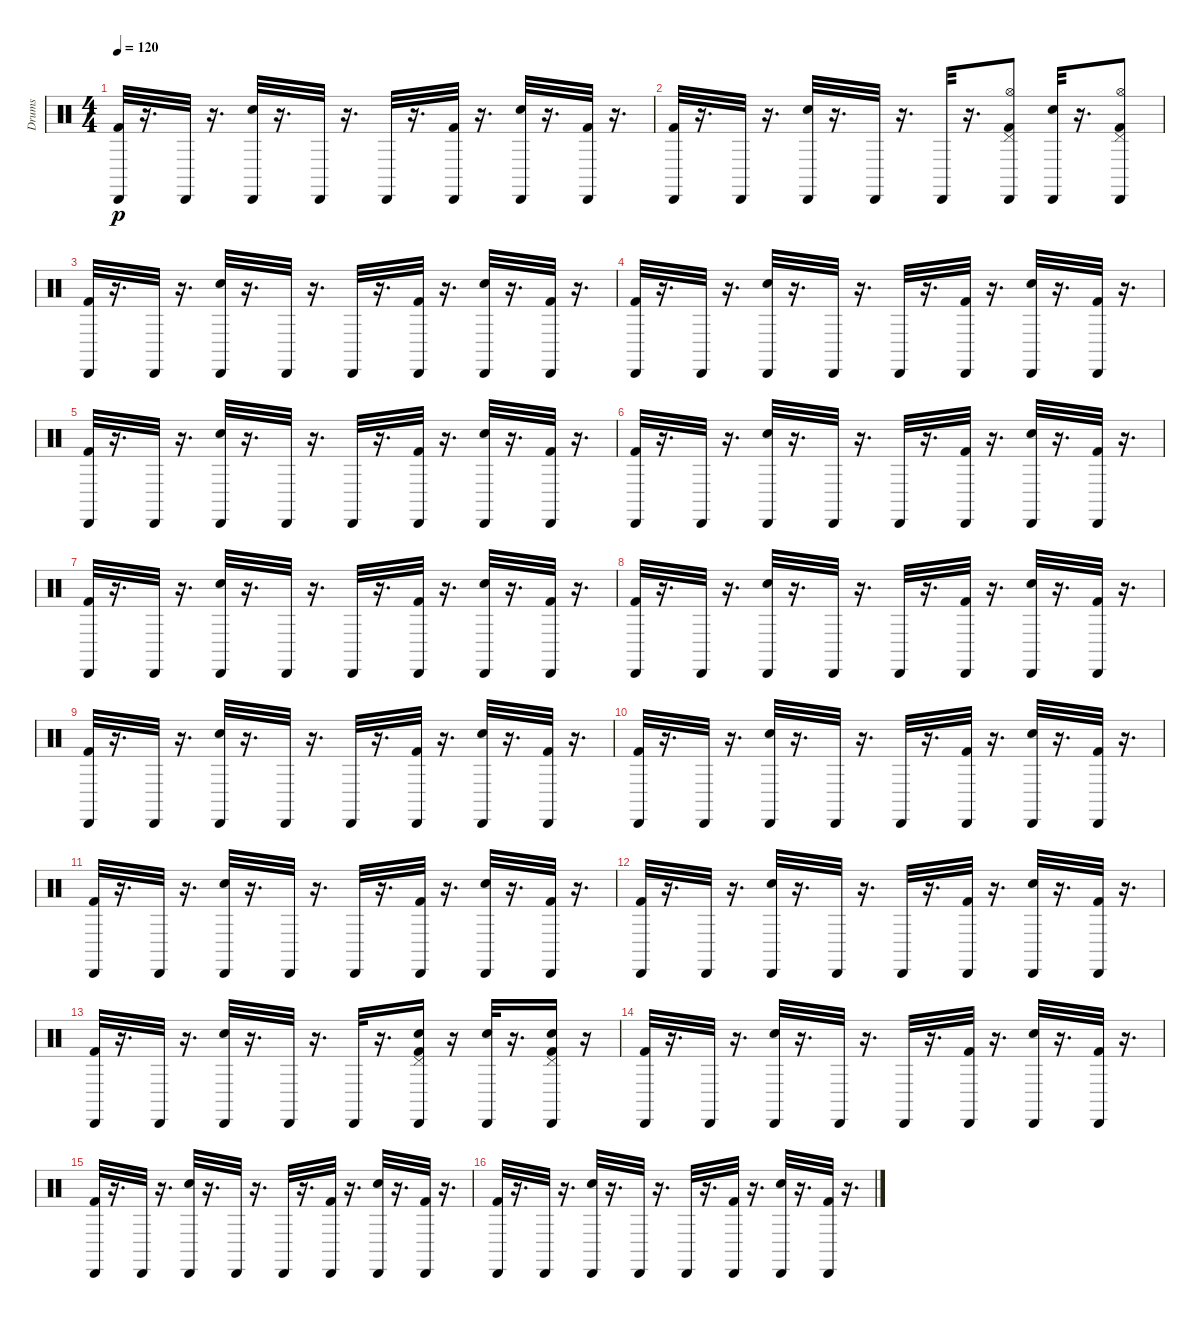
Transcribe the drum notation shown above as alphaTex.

\track ("Drums" "Drums") {instrument percussion}
\staff {score}
\articulation defaults
\ts (4 4)
\tempo 120
\clef neutral
\ks c
("Cabasa (hit)" "Kick (hit) 2").32{dy p} r.16{d} "Cabasa (hit)".32 r.16{d} ("Cabasa (hit)" "Electric Snare (hit)").32 r.16{d} "Cabasa (hit)".32 r.16{d} "Cabasa (hit)".32 r.16{d} ("Cabasa (hit)" "Kick (hit) 2").32 r.16{d} ("Cabasa (hit)" "Electric Snare (hit)").32 r.16{d} ("Cabasa (hit)" "Kick (hit) 2").32 r.16{d} |
("Cabasa (hit)" "Kick (hit) 2").32 r.16{d} "Cabasa (hit)".32 r.16{d} ("Cabasa (hit)" "Electric Snare (hit)").32 r.16{d} "Cabasa (hit)".32 r.16{d} "Cabasa (hit)".32 r.16{d} ("Pedal Hi-Hat (hit)" "Hi-Hat (open)" "Cabasa (hit)" "Kick (hit) 2").8 ("Cabasa (hit)" "Electric Snare (hit)").32 r.16{d} ("Pedal Hi-Hat (hit)" "Hi-Hat (open)" "Cabasa (hit)" "Kick (hit) 2").8 |
("Cabasa (hit)" "Kick (hit) 2").32 r.16{d} "Cabasa (hit)".32 r.16{d} ("Cabasa (hit)" "Electric Snare (hit)").32 r.16{d} "Cabasa (hit)".32 r.16{d} "Cabasa (hit)".32 r.16{d} ("Cabasa (hit)" "Kick (hit) 2").32 r.16{d} ("Cabasa (hit)" "Electric Snare (hit)").32 r.16{d} ("Cabasa (hit)" "Kick (hit) 2").32 r.16{d} |
("Cabasa (hit)" "Kick (hit) 2").32 r.16{d} "Cabasa (hit)".32 r.16{d} ("Cabasa (hit)" "Electric Snare (hit)").32 r.16{d} "Cabasa (hit)".32 r.16{d} "Cabasa (hit)".32 r.16{d} ("Cabasa (hit)" "Kick (hit) 2").32 r.16{d} ("Cabasa (hit)" "Electric Snare (hit)").32 r.16{d} ("Cabasa (hit)" "Kick (hit) 2").32 r.16{d} |
("Cabasa (hit)" "Kick (hit) 2").32 r.16{d} "Cabasa (hit)".32 r.16{d} ("Cabasa (hit)" "Electric Snare (hit)").32 r.16{d} "Cabasa (hit)".32 r.16{d} "Cabasa (hit)".32 r.16{d} ("Cabasa (hit)" "Kick (hit) 2").32 r.16{d} ("Cabasa (hit)" "Electric Snare (hit)").32 r.16{d} ("Cabasa (hit)" "Kick (hit) 2").32 r.16{d} |
("Cabasa (hit)" "Kick (hit) 2").32 r.16{d} "Cabasa (hit)".32 r.16{d} ("Cabasa (hit)" "Electric Snare (hit)").32 r.16{d} "Cabasa (hit)".32 r.16{d} "Cabasa (hit)".32 r.16{d} ("Cabasa (hit)" "Kick (hit) 2").32 r.16{d} ("Cabasa (hit)" "Electric Snare (hit)").32 r.16{d} ("Cabasa (hit)" "Kick (hit) 2").32 r.16{d} |
("Cabasa (hit)" "Kick (hit) 2").32 r.16{d} "Cabasa (hit)".32 r.16{d} ("Cabasa (hit)" "Electric Snare (hit)").32 r.16{d} "Cabasa (hit)".32 r.16{d} "Cabasa (hit)".32 r.16{d} ("Cabasa (hit)" "Kick (hit) 2").32 r.16{d} ("Cabasa (hit)" "Electric Snare (hit)").32 r.16{d} ("Cabasa (hit)" "Kick (hit) 2").32 r.16{d} |
("Cabasa (hit)" "Kick (hit) 2").32 r.16{d} "Cabasa (hit)".32 r.16{d} ("Cabasa (hit)" "Electric Snare (hit)").32 r.16{d} "Cabasa (hit)".32 r.16{d} "Cabasa (hit)".32 r.16{d} ("Cabasa (hit)" "Kick (hit) 2").32 r.16{d} ("Cabasa (hit)" "Electric Snare (hit)").32 r.16{d} ("Cabasa (hit)" "Kick (hit) 2").32 r.16{d} |
("Cabasa (hit)" "Kick (hit) 2").32 r.16{d} "Cabasa (hit)".32 r.16{d} ("Cabasa (hit)" "Electric Snare (hit)").32 r.16{d} "Cabasa (hit)".32 r.16{d} "Cabasa (hit)".32 r.16{d} ("Cabasa (hit)" "Kick (hit) 2").32 r.16{d} ("Cabasa (hit)" "Electric Snare (hit)").32 r.16{d} ("Cabasa (hit)" "Kick (hit) 2").32 r.16{d} |
("Cabasa (hit)" "Kick (hit) 2").32 r.16{d} "Cabasa (hit)".32 r.16{d} ("Cabasa (hit)" "Electric Snare (hit)").32 r.16{d} "Cabasa (hit)".32 r.16{d} "Cabasa (hit)".32 r.16{d} ("Cabasa (hit)" "Kick (hit) 2").32 r.16{d} ("Cabasa (hit)" "Electric Snare (hit)").32 r.16{d} ("Cabasa (hit)" "Kick (hit) 2").32 r.16{d} |
("Cabasa (hit)" "Kick (hit) 2").32 r.16{d} "Cabasa (hit)".32 r.16{d} ("Cabasa (hit)" "Electric Snare (hit)").32 r.16{d} "Cabasa (hit)".32 r.16{d} "Cabasa (hit)".32 r.16{d} ("Cabasa (hit)" "Kick (hit) 2").32 r.16{d} ("Cabasa (hit)" "Electric Snare (hit)").32 r.16{d} ("Cabasa (hit)" "Kick (hit) 2").32 r.16{d} |
("Cabasa (hit)" "Kick (hit) 2").32 r.16{d} "Cabasa (hit)".32 r.16{d} ("Cabasa (hit)" "Electric Snare (hit)").32 r.16{d} "Cabasa (hit)".32 r.16{d} "Cabasa (hit)".32 r.16{d} ("Cabasa (hit)" "Kick (hit) 2").32 r.16{d} ("Cabasa (hit)" "Electric Snare (hit)").32 r.16{d} ("Cabasa (hit)" "Kick (hit) 2").32 r.16{d} |
("Cabasa (hit)" "Kick (hit) 2").32 r.16{d} "Cabasa (hit)".32 r.16{d} ("Cabasa (hit)" "Electric Snare (hit)").32 r.16{d} "Cabasa (hit)".32 r.16{d} "Cabasa (hit)".32 r.16{d} ("Pedal Hi-Hat (hit)" "Electric Snare (hit)" "Cabasa (hit)" "Kick (hit) 2").16 r.16 ("Cabasa (hit)" "Electric Snare (hit)").32 r.16{d} ("Pedal Hi-Hat (hit)" "Electric Snare (hit)" "Cabasa (hit)" "Kick (hit) 2").16 r.16 |
("Cabasa (hit)" "Kick (hit) 2").32 r.16{d} "Cabasa (hit)".32 r.16{d} ("Cabasa (hit)" "Electric Snare (hit)").32 r.16{d} "Cabasa (hit)".32 r.16{d} "Cabasa (hit)".32 r.16{d} ("Cabasa (hit)" "Kick (hit) 2").32 r.16{d} ("Cabasa (hit)" "Electric Snare (hit)").32 r.16{d} ("Cabasa (hit)" "Kick (hit) 2").32 r.16{d} |
("Cabasa (hit)" "Kick (hit) 2").32 r.16{d} "Cabasa (hit)".32 r.16{d} ("Cabasa (hit)" "Electric Snare (hit)").32 r.16{d} "Cabasa (hit)".32 r.16{d} "Cabasa (hit)".32 r.16{d} ("Cabasa (hit)" "Kick (hit) 2").32 r.16{d} ("Cabasa (hit)" "Electric Snare (hit)").32 r.16{d} ("Cabasa (hit)" "Kick (hit) 2").32 r.16{d} |
("Cabasa (hit)" "Kick (hit) 2").32 r.16{d} "Cabasa (hit)".32 r.16{d} ("Cabasa (hit)" "Electric Snare (hit)").32 r.16{d} "Cabasa (hit)".32 r.16{d} "Cabasa (hit)".32 r.16{d} ("Cabasa (hit)" "Kick (hit) 2").32 r.16{d} ("Cabasa (hit)" "Electric Snare (hit)").32 r.16{d} ("Cabasa (hit)" "Kick (hit) 2").32 r.16{d}
